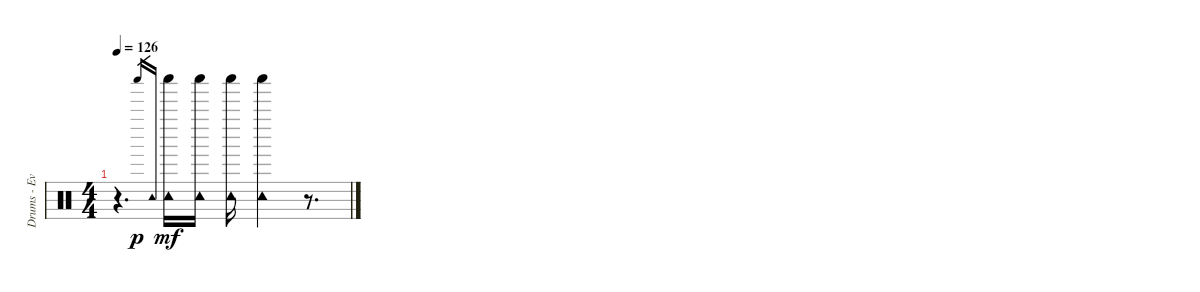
\track ("Drums - Evans" "Drums - Ev") {instrument percussion}
\staff {score}
\articulation defaults
\ts (4 4)
\tempo 126
\clef neutral
\ks c
r.4{d dy f} "Shaker (hit)".16{gr dy p} "Tambourine (hit)".16{gr} ("Shaker (hit)" "Tambourine (hit)").16{dy mf} ("Shaker (hit)" "Tambourine (hit)").16 ("Shaker (hit)" "Tambourine (hit)").16 ("Shaker (hit)" "Tambourine (hit)").4 r.8{d}
